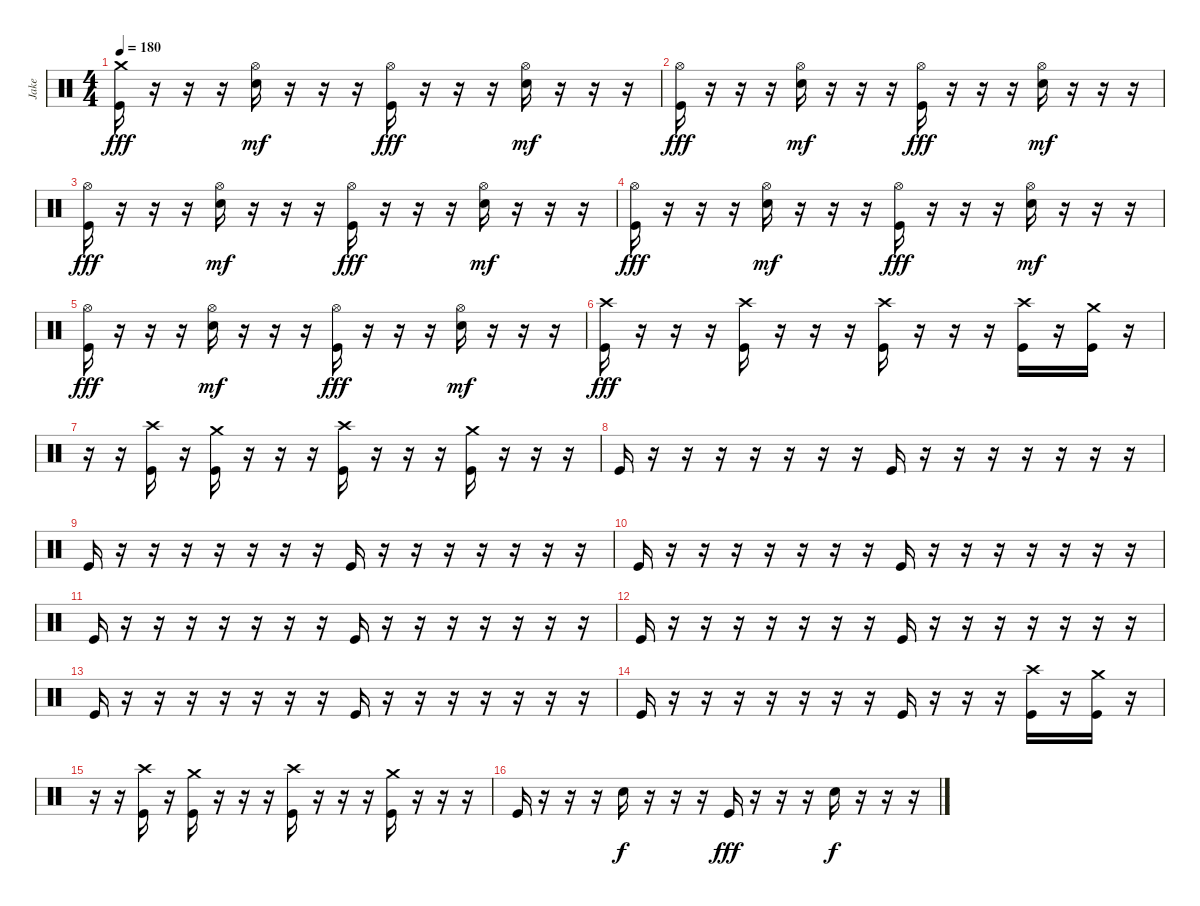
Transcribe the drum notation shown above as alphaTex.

\track ("Jake" "Jake") {instrument percussion}
\staff {score}
\articulation defaults
\ts (4 4)
\tempo 180
\clef neutral
\ks c
("Crash medium (hit)" "Kick (hit)").16{dy fff} r.16 r.16 r.16 ("Hi-Hat (open)" "Electric Snare (hit)").16{dy mf} r.16 r.16 r.16 ("Hi-Hat (open)" "Kick (hit)").16{dy fff} r.16 r.16 r.16 ("Hi-Hat (open)" "Electric Snare (hit)").16{dy mf} r.16 r.16 r.16 |
("Hi-Hat (open)" "Kick (hit)").16{dy fff} r.16 r.16 r.16 ("Hi-Hat (open)" "Electric Snare (hit)").16{dy mf} r.16 r.16 r.16 ("Hi-Hat (open)" "Kick (hit)").16{dy fff} r.16 r.16 r.16 ("Hi-Hat (open)" "Electric Snare (hit)").16{dy mf} r.16 r.16 r.16 |
("Hi-Hat (open)" "Kick (hit)").16{dy fff} r.16 r.16 r.16 ("Hi-Hat (open)" "Electric Snare (hit)").16{dy mf} r.16 r.16 r.16 ("Hi-Hat (open)" "Kick (hit)").16{dy fff} r.16 r.16 r.16 ("Hi-Hat (open)" "Electric Snare (hit)").16{dy mf} r.16 r.16 r.16 |
("Hi-Hat (open)" "Kick (hit)").16{dy fff} r.16 r.16 r.16 ("Hi-Hat (open)" "Electric Snare (hit)").16{dy mf} r.16 r.16 r.16 ("Hi-Hat (open)" "Kick (hit)").16{dy fff} r.16 r.16 r.16 ("Hi-Hat (open)" "Electric Snare (hit)").16{dy mf} r.16 r.16 r.16 |
("Hi-Hat (open)" "Kick (hit)").16{dy fff} r.16 r.16 r.16 ("Hi-Hat (open)" "Electric Snare (hit)").16{dy mf} r.16 r.16 r.16 ("Hi-Hat (open)" "Kick (hit)").16{dy fff} r.16 r.16 r.16 ("Hi-Hat (open)" "Electric Snare (hit)").16{dy mf} r.16 r.16 r.16 |
("Crash high (hit)" "Kick (hit)").16{dy fff} r.16 r.16 r.16 ("Crash high (hit)" "Kick (hit)").16 r.16 r.16 r.16 ("Crash high (hit)" "Kick (hit)").16 r.16 r.16 r.16 ("Crash high (hit)" "Kick (hit)").16 r.16 ("Crash medium (hit)" "Kick (hit)").16 r.16 |
r.16 r.16 ("Crash high (hit)" "Kick (hit)").16 r.16 ("Crash medium (hit)" "Kick (hit)").16 r.16 r.16 r.16 ("Crash high (hit)" "Kick (hit)").16 r.16 r.16 r.16 ("Crash medium (hit)" "Kick (hit)").16 r.16 r.16 r.16 |
"Kick (hit)".16 r.16 r.16 r.16 r.16 r.16 r.16 r.16 "Kick (hit)".16 r.16 r.16 r.16 r.16 r.16 r.16 r.16 |
"Kick (hit)".16 r.16 r.16 r.16 r.16 r.16 r.16 r.16 "Kick (hit)".16 r.16 r.16 r.16 r.16 r.16 r.16 r.16 |
"Kick (hit)".16 r.16 r.16 r.16 r.16 r.16 r.16 r.16 "Kick (hit)".16 r.16 r.16 r.16 r.16 r.16 r.16 r.16 |
"Kick (hit)".16 r.16 r.16 r.16 r.16 r.16 r.16 r.16 "Kick (hit)".16 r.16 r.16 r.16 r.16 r.16 r.16 r.16 |
"Kick (hit)".16 r.16 r.16 r.16 r.16 r.16 r.16 r.16 "Kick (hit)".16 r.16 r.16 r.16 r.16 r.16 r.16 r.16 |
"Kick (hit)".16 r.16 r.16 r.16 r.16 r.16 r.16 r.16 "Kick (hit)".16 r.16 r.16 r.16 r.16 r.16 r.16 r.16 |
"Kick (hit)".16 r.16 r.16 r.16 r.16 r.16 r.16 r.16 "Kick (hit)".16 r.16 r.16 r.16 ("Crash high (hit)" "Kick (hit)").16 r.16 ("Crash medium (hit)" "Kick (hit)").16 r.16 |
r.16 r.16 ("Crash high (hit)" "Kick (hit)").16 r.16 ("Crash medium (hit)" "Kick (hit)").16 r.16 r.16 r.16 ("Crash high (hit)" "Kick (hit)").16 r.16 r.16 r.16 ("Crash medium (hit)" "Kick (hit)").16 r.16 r.16 r.16 |
"Kick (hit)".16 r.16 r.16 r.16 "Electric Snare (hit)".16{dy f} r.16 r.16 r.16 "Kick (hit)".16{dy fff} r.16 r.16 r.16 "Electric Snare (hit)".16{dy f} r.16 r.16 r.16
